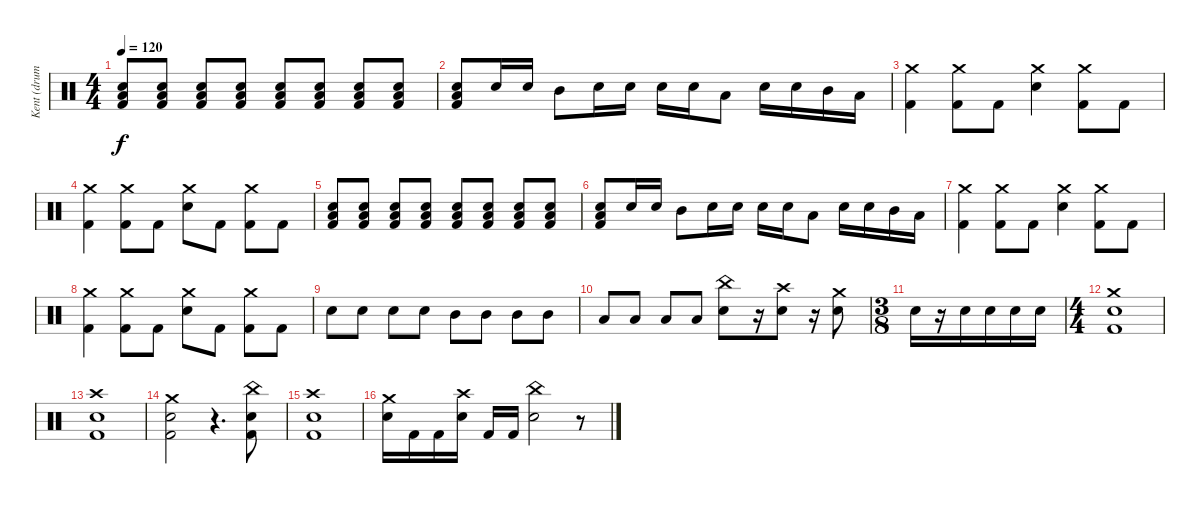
\track ("Kent (drums)" "Kent (drum") {instrument percussion}
\staff {score}
\articulation defaults
\ts (4 4)
\tempo 120
\clef neutral
\ks c
("Low Floor Tom (hit)" "Snare (hit) 2" "Kick (hit) 2").8{dy f} ("Low Floor Tom (hit)" "Snare (hit) 2" "Kick (hit) 2").8 ("Low Floor Tom (hit)" "Snare (hit) 2" "Kick (hit) 2").8 ("Low Floor Tom (hit)" "Snare (hit) 2" "Kick (hit) 2").8 ("Low Floor Tom (hit)" "Snare (hit) 2" "Kick (hit) 2").8 ("Low Floor Tom (hit)" "Snare (hit) 2" "Kick (hit) 2").8 ("Low Floor Tom (hit)" "Snare (hit) 2" "Kick (hit) 2").8 ("Low Floor Tom (hit)" "Snare (hit) 2" "Kick (hit) 2").8 |
("Low Floor Tom (hit)" "Snare (hit) 2" "Kick (hit) 2").8 "Snare (hit) 2".16 "Snare (hit) 2".16 "Mid Tom (hit)".8 "Snare (hit) 2".16 "Snare (hit) 2".16 "Snare (hit) 2".16 "Snare (hit) 2".16 "Low Tom (hit)".8 "Snare (hit) 2".16 "Snare (hit) 2".16 "Mid Tom (hit)".16 "Low Tom (hit)".16 |
("Crash medium (hit)" "Kick (hit) 2").4 ("Crash medium (hit)" "Kick (hit) 2").8 "Kick (hit) 2".8 ("Crash medium (hit)" "Snare (hit) 2").4 ("Crash medium (hit)" "Kick (hit) 2").8 "Kick (hit) 2".8 |
("Crash medium (hit)" "Kick (hit) 2").4 ("Crash medium (hit)" "Kick (hit) 2").8 "Kick (hit) 2".8 ("Crash medium (hit)" "Snare (hit) 2").8 "Kick (hit) 2".8 ("Crash medium (hit)" "Kick (hit) 2").8 "Kick (hit) 2".8 |
("Low Floor Tom (hit)" "Snare (hit) 2" "Kick (hit) 2").8 ("Low Floor Tom (hit)" "Snare (hit) 2" "Kick (hit) 2").8 ("Low Floor Tom (hit)" "Snare (hit) 2" "Kick (hit) 2").8 ("Low Floor Tom (hit)" "Snare (hit) 2" "Kick (hit) 2").8 ("Low Floor Tom (hit)" "Snare (hit) 2" "Kick (hit) 2").8 ("Low Floor Tom (hit)" "Snare (hit) 2" "Kick (hit) 2").8 ("Low Floor Tom (hit)" "Snare (hit) 2" "Kick (hit) 2").8 ("Low Floor Tom (hit)" "Snare (hit) 2" "Kick (hit) 2").8 |
("Low Floor Tom (hit)" "Snare (hit) 2" "Kick (hit) 2").8 "Snare (hit) 2".16 "Snare (hit) 2".16 "Mid Tom (hit)".8 "Snare (hit) 2".16 "Snare (hit) 2".16 "Snare (hit) 2".16 "Snare (hit) 2".16 "Low Tom (hit)".8 "Snare (hit) 2".16 "Snare (hit) 2".16 "Mid Tom (hit)".16 "Low Tom (hit)".16 |
("Crash medium (hit)" "Kick (hit) 2").4 ("Crash medium (hit)" "Kick (hit) 2").8 "Kick (hit) 2".8 ("Crash medium (hit)" "Snare (hit) 2").4 ("Crash medium (hit)" "Kick (hit) 2").8 "Kick (hit) 2".8 |
("Crash medium (hit)" "Kick (hit) 2").4 ("Crash medium (hit)" "Kick (hit) 2").8 "Kick (hit) 2".8 ("Crash medium (hit)" "Snare (hit) 2").8 "Kick (hit) 2".8 ("Crash medium (hit)" "Kick (hit) 2").8 "Kick (hit) 2".8 |
"Snare (hit) 2".8 "Snare (hit) 2".8 "Snare (hit) 2".8 "Snare (hit) 2".8 "Mid Tom (hit)".8 "Mid Tom (hit)".8 "Mid Tom (hit)".8 "Mid Tom (hit)".8 |
"Low Tom (hit)".8 "Low Tom (hit)".8 "Low Floor Tom (hit)".8 "Low Floor Tom (hit)".8 ("China (hit)" "Snare (hit) 2").8 r.16 ("Crash high (hit)" "Snare (hit) 2").8 r.16 ("Crash medium (hit)" "Snare (hit) 2").8 |
\ts (3 8)
"Snare (hit) 2".16 r.16 "Snare (hit) 2".16 "Snare (hit) 2".16 "Snare (hit) 2".16 "Snare (hit) 2".16 |
\ts (4 4)
("Crash medium (hit)" "Snare (hit) 2" "Kick (hit) 2").1 |
("Crash high (hit)" "Snare (hit) 2" "Kick (hit) 2").1 |
("Crash medium (hit)" "Snare (hit) 2" "Kick (hit) 2").2 r.4{d} ("China (hit)" "Snare (hit) 2" "Kick (hit) 2").8 |
("Crash high (hit)" "Snare (hit) 2" "Kick (hit) 2").1 |
("Crash medium (hit)" "Snare (hit) 2").16 "Kick (hit) 2".16 "Kick (hit) 2".16 ("Crash high (hit)" "Snare (hit) 2").16 "Kick (hit) 2".16 "Kick (hit) 2".16 ("China (hit)" "Snare (hit) 2").2 r.8
